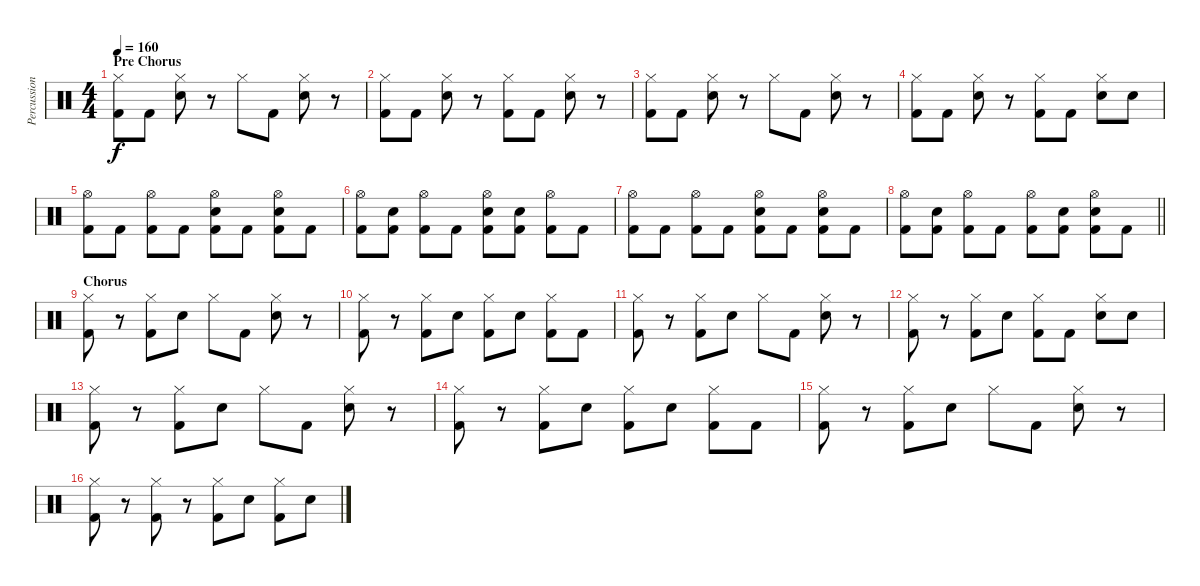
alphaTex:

\track ("Percussion" "Percussion") {instrument percussion}
\staff {score}
\articulation defaults
\ts (4 4)
\section ("" "Pre Chorus")
\tempo 160
\clef neutral
\ks c
("Hi-Hat (closed)" "Kick (hit) 2").8{dy f} "Kick (hit) 2".8 ("Hi-Hat (closed)" "Snare (hit) 2").8 r.8 "Hi-Hat (closed)".8 "Kick (hit) 2".8 ("Hi-Hat (closed)" "Snare (hit) 2").8 r.8 |
("Hi-Hat (closed)" "Kick (hit) 2").8 "Kick (hit) 2".8 ("Hi-Hat (closed)" "Snare (hit) 2").8 r.8 ("Hi-Hat (closed)" "Kick (hit) 2").8 "Kick (hit) 2".8 ("Hi-Hat (closed)" "Snare (hit) 2").8 r.8 |
("Hi-Hat (closed)" "Kick (hit) 2").8 "Kick (hit) 2".8 ("Hi-Hat (closed)" "Snare (hit) 2").8 r.8 "Hi-Hat (closed)".8 "Kick (hit) 2".8 ("Hi-Hat (closed)" "Snare (hit) 2").8 r.8 |
("Hi-Hat (closed)" "Kick (hit) 2").8 "Kick (hit) 2".8 ("Hi-Hat (closed)" "Snare (hit) 2").8 r.8 ("Hi-Hat (closed)" "Kick (hit) 2").8 "Kick (hit) 2".8 ("Hi-Hat (closed)" "Snare (hit) 2").8 "Snare (hit) 2".8 |
("Hi-Hat (open)" "Kick (hit) 2").8 "Kick (hit) 2".8 ("Hi-Hat (open)" "Kick (hit) 2").8 "Kick (hit) 2".8 ("Hi-Hat (open)" "Snare (hit) 2" "Kick (hit) 2").8 "Kick (hit) 2".8 ("Hi-Hat (open)" "Snare (hit) 2" "Kick (hit) 2").8 "Kick (hit) 2".8 |
("Hi-Hat (open)" "Kick (hit) 2").8 ("Snare (hit) 2" "Kick (hit) 2").8 ("Hi-Hat (open)" "Kick (hit) 2").8 "Kick (hit) 2".8 ("Hi-Hat (open)" "Snare (hit) 2" "Kick (hit) 2").8 ("Snare (hit) 2" "Kick (hit) 2").8 ("Hi-Hat (open)" "Kick (hit) 2").8 "Kick (hit) 2".8 |
("Hi-Hat (open)" "Kick (hit) 2").8 "Kick (hit) 2".8 ("Hi-Hat (open)" "Kick (hit) 2").8 "Kick (hit) 2".8 ("Hi-Hat (open)" "Snare (hit) 2" "Kick (hit) 2").8 "Kick (hit) 2".8 ("Hi-Hat (open)" "Snare (hit) 2" "Kick (hit) 2").8 "Kick (hit) 2".8 |
\barLineRight lightlight
("Hi-Hat (open)" "Kick (hit) 2").8 ("Snare (hit) 2" "Kick (hit) 2").8 ("Hi-Hat (open)" "Kick (hit) 2").8 "Kick (hit) 2".8 ("Hi-Hat (open)" "Kick (hit) 2").8 ("Snare (hit) 2" "Kick (hit) 2").8 ("Hi-Hat (open)" "Snare (hit) 2" "Kick (hit) 2").8 "Kick (hit) 2".8 |
\section ("" "Chorus")
("Hi-Hat (closed)" "Kick (hit) 2").8 r.8 ("Hi-Hat (closed)" "Kick (hit) 2").8 "Snare (hit) 2".8 "Hi-Hat (closed)".8 "Kick (hit) 2".8 ("Hi-Hat (closed)" "Snare (hit) 2").8 r.8 |
("Hi-Hat (closed)" "Kick (hit) 2").8 r.8 ("Hi-Hat (closed)" "Kick (hit) 2").8 "Snare (hit) 2".8 ("Hi-Hat (closed)" "Kick (hit) 2").8 "Snare (hit) 2".8 ("Hi-Hat (closed)" "Kick (hit) 2").8 "Kick (hit) 2".8 |
("Hi-Hat (closed)" "Kick (hit) 2").8 r.8 ("Hi-Hat (closed)" "Kick (hit) 2").8 "Snare (hit) 2".8 "Hi-Hat (closed)".8 "Kick (hit) 2".8 ("Hi-Hat (closed)" "Snare (hit) 2").8 r.8 |
("Hi-Hat (closed)" "Kick (hit) 2").8 r.8 ("Hi-Hat (closed)" "Kick (hit) 2").8 "Snare (hit) 2".8 ("Hi-Hat (closed)" "Kick (hit) 2").8 "Kick (hit) 2".8 ("Hi-Hat (closed)" "Snare (hit) 2").8 "Snare (hit) 2".8 |
("Hi-Hat (closed)" "Kick (hit) 2").8 r.8 ("Hi-Hat (closed)" "Kick (hit) 2").8 "Snare (hit) 2".8 "Hi-Hat (closed)".8 "Kick (hit) 2".8 ("Hi-Hat (closed)" "Snare (hit) 2").8 r.8 |
("Hi-Hat (closed)" "Kick (hit) 2").8 r.8 ("Hi-Hat (closed)" "Kick (hit) 2").8 "Snare (hit) 2".8 ("Hi-Hat (closed)" "Kick (hit) 2").8 "Snare (hit) 2".8 ("Hi-Hat (closed)" "Kick (hit) 2").8 "Kick (hit) 2".8 |
("Hi-Hat (closed)" "Kick (hit) 2").8 r.8 ("Hi-Hat (closed)" "Kick (hit) 2").8 "Snare (hit) 2".8 "Hi-Hat (closed)".8 "Kick (hit) 2".8 ("Hi-Hat (closed)" "Snare (hit) 2").8 r.8 |
("Hi-Hat (closed)" "Kick (hit) 2").8 r.8 ("Hi-Hat (closed)" "Kick (hit) 2").8 r.8 ("Hi-Hat (closed)" "Kick (hit) 2").8 "Snare (hit) 2".8 ("Hi-Hat (closed)" "Kick (hit) 2").8 "Snare (hit) 2".8
